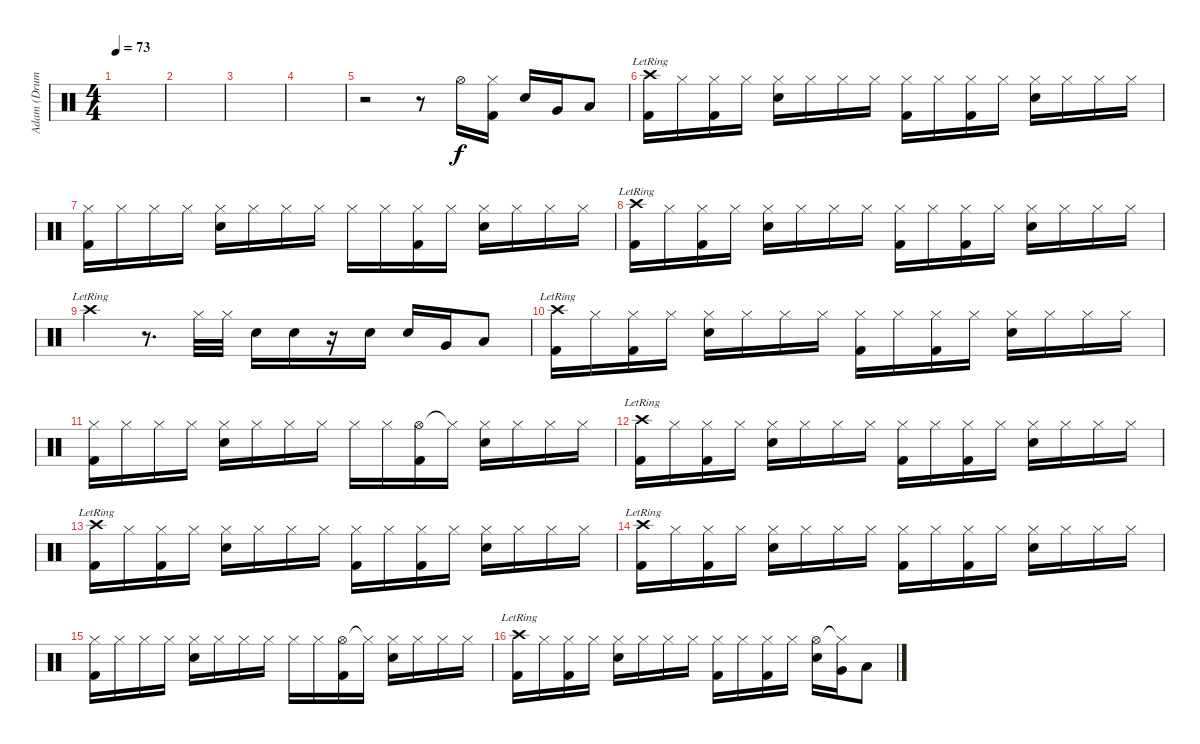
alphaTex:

\track ("Adam (Drums)" "Adam (Drum") {instrument percussion}
\staff {score}
\articulation defaults
\ts (4 4)
\tempo 73
\clef neutral
\ks c
|
|
|
|
r.2 r.8 "Hi-Hat (open)".16{dy f} ("Hi-Hat (closed)" "Kick (hit) 2").16 "Electric Snare (hit)".16 "Very Low Tom (hit)".16 "Low Floor Tom (hit)".8 |
("Crash high (hit)"{lr} "Kick (hit) 2").16 "Hi-Hat (closed)".16 ("Hi-Hat (closed)" "Kick (hit) 2").16 "Hi-Hat (closed)".16 ("Hi-Hat (closed)" "Electric Snare (hit)").16 "Hi-Hat (closed)".16 "Hi-Hat (closed)".16 "Hi-Hat (closed)".16 ("Hi-Hat (closed)" "Kick (hit) 2").16 "Hi-Hat (closed)".16 ("Hi-Hat (closed)" "Kick (hit) 2").16 "Hi-Hat (closed)".16 ("Hi-Hat (closed)" "Electric Snare (hit)").16 "Hi-Hat (closed)".16 "Hi-Hat (closed)".16 "Hi-Hat (closed)".16 |
("Hi-Hat (closed)" "Kick (hit) 2").16 "Hi-Hat (closed)".16 "Hi-Hat (closed)".16 "Hi-Hat (closed)".16 ("Hi-Hat (closed)" "Electric Snare (hit)").16 "Hi-Hat (closed)".16 "Hi-Hat (closed)".16 "Hi-Hat (closed)".16 "Hi-Hat (closed)".16 "Hi-Hat (closed)".16 ("Hi-Hat (closed)" "Kick (hit) 2").16 "Hi-Hat (closed)".16 ("Hi-Hat (closed)" "Electric Snare (hit)").16 "Hi-Hat (closed)".16 "Hi-Hat (closed)".16 "Hi-Hat (closed)".16 |
("Crash high (hit)"{lr} "Kick (hit) 2").16 "Hi-Hat (closed)".16 ("Hi-Hat (closed)" "Kick (hit) 2").16 "Hi-Hat (closed)".16 ("Hi-Hat (closed)" "Electric Snare (hit)").16 "Hi-Hat (closed)".16 "Hi-Hat (closed)".16 "Hi-Hat (closed)".16 ("Hi-Hat (closed)" "Kick (hit) 2").16 "Hi-Hat (closed)".16 ("Hi-Hat (closed)" "Kick (hit) 2").16 "Hi-Hat (closed)".16 ("Hi-Hat (closed)" "Electric Snare (hit)").16 "Hi-Hat (closed)".16 "Hi-Hat (closed)".16 "Hi-Hat (closed)".16 |
"Crash high (hit)"{lr}.4 r.8{d} "Hi-Hat (closed)".32 "Hi-Hat (closed)".32 "Electric Snare (hit)".16 "Electric Snare (hit)".16 r.16 "Electric Snare (hit)".16 "Electric Snare (hit)".16 "Very Low Tom (hit)".16 "Low Floor Tom (hit)".8 |
("Crash high (hit)"{lr} "Kick (hit) 2").16 "Hi-Hat (closed)".16 ("Hi-Hat (closed)" "Kick (hit) 2").16 "Hi-Hat (closed)".16 ("Hi-Hat (closed)" "Electric Snare (hit)").16 "Hi-Hat (closed)".16 "Hi-Hat (closed)".16 "Hi-Hat (closed)".16 ("Hi-Hat (closed)" "Kick (hit) 2").16 "Hi-Hat (closed)".16 ("Hi-Hat (closed)" "Kick (hit) 2").16 "Hi-Hat (closed)".16 ("Hi-Hat (closed)" "Electric Snare (hit)").16 "Hi-Hat (closed)".16 "Hi-Hat (closed)".16 "Hi-Hat (closed)".16 |
("Hi-Hat (closed)" "Kick (hit) 2").16 "Hi-Hat (closed)".16 "Hi-Hat (closed)".16 "Hi-Hat (closed)".16 ("Hi-Hat (closed)" "Electric Snare (hit)").16 "Hi-Hat (closed)".16 "Hi-Hat (closed)".16 "Hi-Hat (closed)".16 "Hi-Hat (closed)".16 "Hi-Hat (closed)".16 ("Hi-Hat (open)" "Kick (hit) 2").16 "Hi-Hat (closed)"{t}.16 ("Hi-Hat (closed)" "Electric Snare (hit)").16 "Hi-Hat (closed)".16 "Hi-Hat (closed)".16 "Hi-Hat (closed)".16 |
("Crash high (hit)"{lr} "Kick (hit) 2").16 "Hi-Hat (closed)".16 ("Hi-Hat (closed)" "Kick (hit) 2").16 "Hi-Hat (closed)".16 ("Hi-Hat (closed)" "Electric Snare (hit)").16 "Hi-Hat (closed)".16 "Hi-Hat (closed)".16 "Hi-Hat (closed)".16 ("Hi-Hat (closed)" "Kick (hit) 2").16 "Hi-Hat (closed)".16 ("Hi-Hat (closed)" "Kick (hit) 2").16 "Hi-Hat (closed)".16 ("Hi-Hat (closed)" "Electric Snare (hit)").16 "Hi-Hat (closed)".16 "Hi-Hat (closed)".16 "Hi-Hat (closed)".16 |
("Crash high (hit)"{lr} "Kick (hit) 2").16 "Hi-Hat (closed)".16 ("Hi-Hat (closed)" "Kick (hit) 2").16 "Hi-Hat (closed)".16 ("Hi-Hat (closed)" "Electric Snare (hit)").16 "Hi-Hat (closed)".16 "Hi-Hat (closed)".16 "Hi-Hat (closed)".16 ("Hi-Hat (closed)" "Kick (hit) 2").16 "Hi-Hat (closed)".16 ("Hi-Hat (closed)" "Kick (hit) 2").16 "Hi-Hat (closed)".16 ("Hi-Hat (closed)" "Electric Snare (hit)").16 "Hi-Hat (closed)".16 "Hi-Hat (closed)".16 "Hi-Hat (closed)".16 |
("Crash high (hit)"{lr} "Kick (hit) 2").16 "Hi-Hat (closed)".16 ("Hi-Hat (closed)" "Kick (hit) 2").16 "Hi-Hat (closed)".16 ("Hi-Hat (closed)" "Electric Snare (hit)").16 "Hi-Hat (closed)".16 "Hi-Hat (closed)".16 "Hi-Hat (closed)".16 ("Hi-Hat (closed)" "Kick (hit) 2").16 "Hi-Hat (closed)".16 ("Hi-Hat (closed)" "Kick (hit) 2").16 "Hi-Hat (closed)".16 ("Hi-Hat (closed)" "Electric Snare (hit)").16 "Hi-Hat (closed)".16 "Hi-Hat (closed)".16 "Hi-Hat (closed)".16 |
("Hi-Hat (closed)" "Kick (hit) 2").16 "Hi-Hat (closed)".16 "Hi-Hat (closed)".16 "Hi-Hat (closed)".16 ("Hi-Hat (closed)" "Electric Snare (hit)").16 "Hi-Hat (closed)".16 "Hi-Hat (closed)".16 "Hi-Hat (closed)".16 "Hi-Hat (closed)".16 "Hi-Hat (closed)".16 ("Hi-Hat (open)" "Kick (hit) 2").16 "Hi-Hat (closed)"{t}.16 ("Hi-Hat (closed)" "Electric Snare (hit)").16 "Hi-Hat (closed)".16 "Hi-Hat (closed)".16 "Hi-Hat (closed)".16 |
("Crash high (hit)"{lr} "Kick (hit) 2").16 "Hi-Hat (closed)".16 ("Hi-Hat (closed)" "Kick (hit) 2").16 "Hi-Hat (closed)".16 ("Hi-Hat (closed)" "Electric Snare (hit)").16 "Hi-Hat (closed)".16 "Hi-Hat (closed)".16 "Hi-Hat (closed)".16 ("Hi-Hat (closed)" "Kick (hit) 2").16 "Hi-Hat (closed)".16 ("Hi-Hat (closed)" "Kick (hit) 2").16 "Hi-Hat (closed)".16 ("Hi-Hat (open)" "Electric Snare (hit)").16 ("Hi-Hat (closed)"{t} "Very Low Tom (hit)").16 "Low Floor Tom (hit)".8
